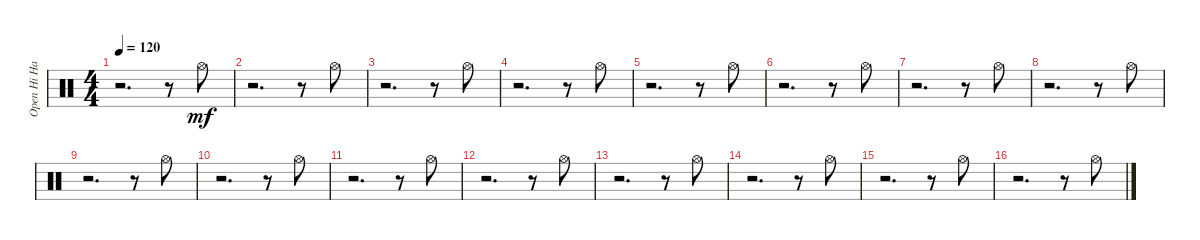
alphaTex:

\track ("Open Hi Hat" "Open Hi Ha") {instrument percussion}
\staff {score}
\articulation defaults
\ts (4 4)
\tempo 120
\clef neutral
\ks c
r.2{d dy mf} r.8 "Hi-Hat (open)".8 |
r.2{d} r.8 "Hi-Hat (open)".8 |
r.2{d} r.8 "Hi-Hat (open)".8 |
r.2{d} r.8 "Hi-Hat (open)".8 |
r.2{d} r.8 "Hi-Hat (open)".8 |
r.2{d} r.8 "Hi-Hat (open)".8 |
r.2{d} r.8 "Hi-Hat (open)".8 |
r.2{d} r.8 "Hi-Hat (open)".8 |
r.2{d} r.8 "Hi-Hat (open)".8 |
r.2{d} r.8 "Hi-Hat (open)".8 |
r.2{d} r.8 "Hi-Hat (open)".8 |
r.2{d} r.8 "Hi-Hat (open)".8 |
r.2{d} r.8 "Hi-Hat (open)".8 |
r.2{d} r.8 "Hi-Hat (open)".8 |
r.2{d} r.8 "Hi-Hat (open)".8 |
r.2{d} r.8 "Hi-Hat (open)".8
